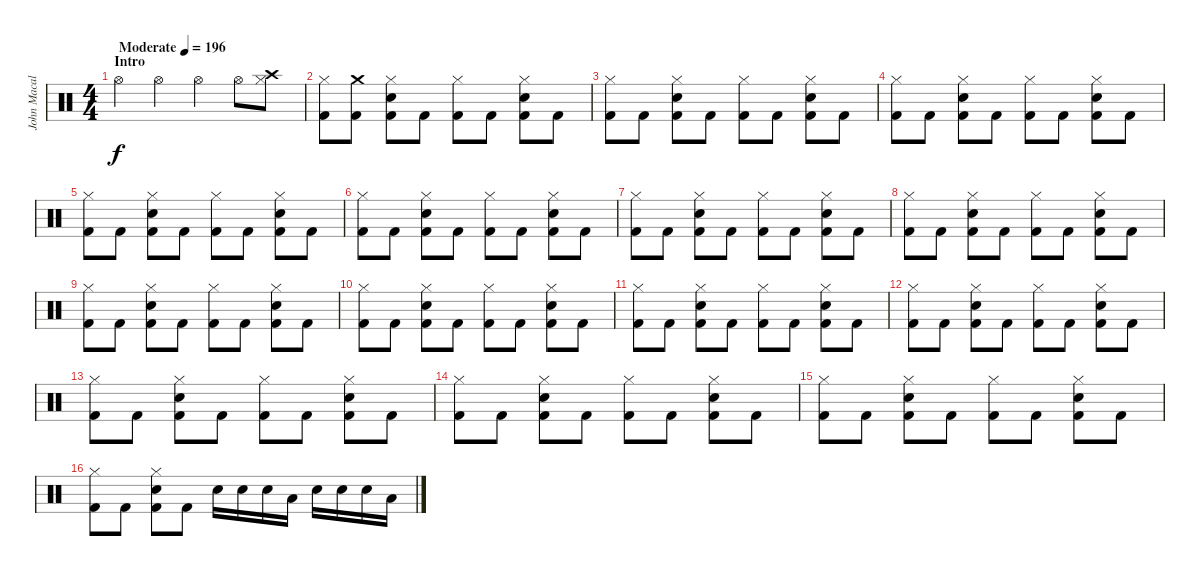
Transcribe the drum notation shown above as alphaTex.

\track ("John Macaluso" "John Macal") {instrument percussion}
\staff {score}
\articulation defaults
\ts (4 4)
\section ("" "Intro")
\tempo (196 "Moderate")
\clef neutral
\ks c "Hi-Hat (open)".4{dy f} "Hi-Hat (open)".4 "Hi-Hat (open)".4 "Hi-Hat (open)".8
("Crash high (hit)" "Hi-Hat (closed)").8 |
("Hi-Hat (closed)" "Kick (hit) 2").8 ("Crash medium (hit)" "Kick (hit) 2").8 ("Electric Snare (hit)" "Hi-Hat (closed)" "Kick (hit) 2").8 "Kick (hit) 2".8 ("Hi-Hat (closed)" "Kick (hit) 2").8 "Kick (hit) 2".8 ("Electric Snare (hit)" "Hi-Hat (closed)" "Kick (hit) 2").8 "Kick (hit) 2".8 |
("Hi-Hat (closed)" "Kick (hit) 2").8 "Kick (hit) 2".8 ("Electric Snare (hit)" "Hi-Hat (closed)" "Kick (hit) 2").8 "Kick (hit) 2".8 ("Hi-Hat (closed)" "Kick (hit) 2").8 "Kick (hit) 2".8 ("Electric Snare (hit)" "Hi-Hat (closed)" "Kick (hit) 2").8 "Kick (hit) 2".8 |
("Hi-Hat (closed)" "Kick (hit) 2").8 "Kick (hit) 2".8 ("Electric Snare (hit)" "Hi-Hat (closed)" "Kick (hit) 2").8 "Kick (hit) 2".8 ("Hi-Hat (closed)" "Kick (hit) 2").8 "Kick (hit) 2".8 ("Electric Snare (hit)" "Hi-Hat (closed)" "Kick (hit) 2").8 "Kick (hit) 2".8 |
("Hi-Hat (closed)" "Kick (hit) 2").8 "Kick (hit) 2".8 ("Electric Snare (hit)" "Hi-Hat (closed)" "Kick (hit) 2").8 "Kick (hit) 2".8 ("Hi-Hat (closed)" "Kick (hit) 2").8 "Kick (hit) 2".8 ("Electric Snare (hit)" "Hi-Hat (closed)" "Kick (hit) 2").8 "Kick (hit) 2".8 |
("Hi-Hat (closed)" "Kick (hit) 2").8 "Kick (hit) 2".8 ("Electric Snare (hit)" "Hi-Hat (closed)" "Kick (hit) 2").8 "Kick (hit) 2".8 ("Hi-Hat (closed)" "Kick (hit) 2").8 "Kick (hit) 2".8 ("Electric Snare (hit)" "Hi-Hat (closed)" "Kick (hit) 2").8 "Kick (hit) 2".8 |
("Hi-Hat (closed)" "Kick (hit) 2").8 "Kick (hit) 2".8 ("Electric Snare (hit)" "Hi-Hat (closed)" "Kick (hit) 2").8 "Kick (hit) 2".8 ("Hi-Hat (closed)" "Kick (hit) 2").8 "Kick (hit) 2".8 ("Electric Snare (hit)" "Hi-Hat (closed)" "Kick (hit) 2").8 "Kick (hit) 2".8 |
("Hi-Hat (closed)" "Kick (hit) 2").8 "Kick (hit) 2".8 ("Electric Snare (hit)" "Hi-Hat (closed)" "Kick (hit) 2").8 "Kick (hit) 2".8 ("Hi-Hat (closed)" "Kick (hit) 2").8 "Kick (hit) 2".8 ("Electric Snare (hit)" "Hi-Hat (closed)" "Kick (hit) 2").8 "Kick (hit) 2".8 |
("Hi-Hat (closed)" "Kick (hit) 2").8 "Kick (hit) 2".8 ("Electric Snare (hit)" "Hi-Hat (closed)" "Kick (hit) 2").8 "Kick (hit) 2".8 ("Hi-Hat (closed)" "Kick (hit) 2").8 "Kick (hit) 2".8 ("Electric Snare (hit)" "Hi-Hat (closed)" "Kick (hit) 2").8 "Kick (hit) 2".8 |
("Hi-Hat (closed)" "Kick (hit) 2").8 "Kick (hit) 2".8 ("Electric Snare (hit)" "Hi-Hat (closed)" "Kick (hit) 2").8 "Kick (hit) 2".8 ("Hi-Hat (closed)" "Kick (hit) 2").8 "Kick (hit) 2".8 ("Electric Snare (hit)" "Hi-Hat (closed)" "Kick (hit) 2").8 "Kick (hit) 2".8 |
("Hi-Hat (closed)" "Kick (hit) 2").8 "Kick (hit) 2".8 ("Electric Snare (hit)" "Hi-Hat (closed)" "Kick (hit) 2").8 "Kick (hit) 2".8 ("Hi-Hat (closed)" "Kick (hit) 2").8 "Kick (hit) 2".8 ("Electric Snare (hit)" "Hi-Hat (closed)" "Kick (hit) 2").8 "Kick (hit) 2".8 |
("Hi-Hat (closed)" "Kick (hit) 2").8 "Kick (hit) 2".8 ("Electric Snare (hit)" "Hi-Hat (closed)" "Kick (hit) 2").8 "Kick (hit) 2".8 ("Hi-Hat (closed)" "Kick (hit) 2").8 "Kick (hit) 2".8 ("Electric Snare (hit)" "Hi-Hat (closed)" "Kick (hit) 2").8 "Kick (hit) 2".8 |
("Hi-Hat (closed)" "Kick (hit) 2").8 "Kick (hit) 2".8 ("Electric Snare (hit)" "Hi-Hat (closed)" "Kick (hit) 2").8 "Kick (hit) 2".8 ("Hi-Hat (closed)" "Kick (hit) 2").8 "Kick (hit) 2".8 ("Electric Snare (hit)" "Hi-Hat (closed)" "Kick (hit) 2").8 "Kick (hit) 2".8 |
("Hi-Hat (closed)" "Kick (hit) 2").8 "Kick (hit) 2".8 ("Electric Snare (hit)" "Hi-Hat (closed)" "Kick (hit) 2").8 "Kick (hit) 2".8 ("Hi-Hat (closed)" "Kick (hit) 2").8 "Kick (hit) 2".8 ("Electric Snare (hit)" "Hi-Hat (closed)" "Kick (hit) 2").8 "Kick (hit) 2".8 |
("Hi-Hat (closed)" "Kick (hit) 2").8 "Kick (hit) 2".8 ("Electric Snare (hit)" "Hi-Hat (closed)" "Kick (hit) 2").8 "Kick (hit) 2".8 ("Hi-Hat (closed)" "Kick (hit) 2").8 "Kick (hit) 2".8 ("Electric Snare (hit)" "Hi-Hat (closed)" "Kick (hit) 2").8 "Kick (hit) 2".8 |
("Hi-Hat (closed)" "Kick (hit) 2").8 "Kick (hit) 2".8 ("Electric Snare (hit)" "Hi-Hat (closed)" "Kick (hit) 2").8 "Kick (hit) 2".8 "Electric Snare (hit)".16 "Electric Snare (hit)".16 "Electric Snare (hit)".16 "Low Tom (hit)".16 "Electric Snare (hit)".16 "Electric Snare (hit)".16 "Electric Snare (hit)".16 "Low Tom (hit)".16
